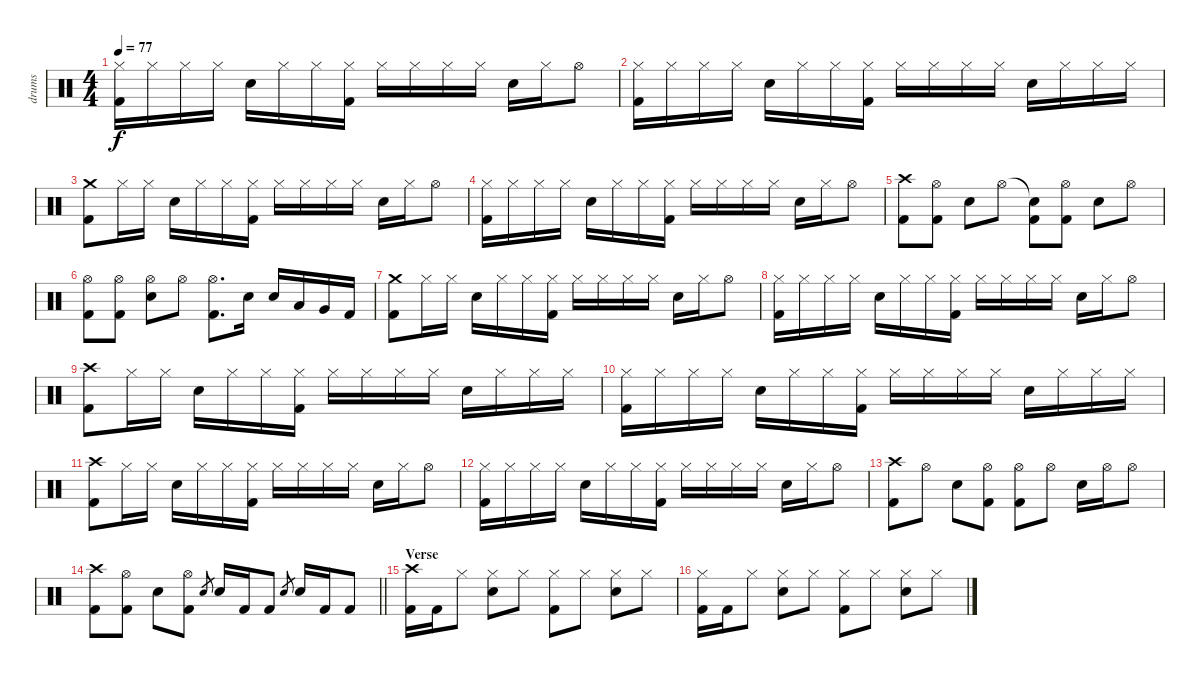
\track ("drums" "drums") {instrument percussion}
\staff {score}
\articulation defaults
\ts (4 4)
\tempo 77
\clef neutral
\ks c
("Hi-Hat (closed)" "Kick (hit) 2").16{dy f} "Hi-Hat (closed)".16 "Hi-Hat (closed)".16 "Hi-Hat (closed)".16 "Electric Snare (hit)".16 "Hi-Hat (closed)".16 "Hi-Hat (closed)".16 ("Hi-Hat (closed)" "Kick (hit) 2").16 "Hi-Hat (closed)".16 "Hi-Hat (closed)".16 "Hi-Hat (closed)".16 "Hi-Hat (closed)".16 "Electric Snare (hit)".16 "Hi-Hat (closed)".16 "Hi-Hat (open)".8 |
("Hi-Hat (closed)" "Kick (hit) 2").16 "Hi-Hat (closed)".16 "Hi-Hat (closed)".16 "Hi-Hat (closed)".16 "Electric Snare (hit)".16 "Hi-Hat (closed)".16 "Hi-Hat (closed)".16 ("Hi-Hat (closed)" "Kick (hit) 2").16 "Hi-Hat (closed)".16 "Hi-Hat (closed)".16 "Hi-Hat (closed)".16 "Hi-Hat (closed)".16 "Electric Snare (hit)".16 "Hi-Hat (closed)".16 "Hi-Hat (closed)".16 "Hi-Hat (closed)".16 |
("Crash medium (hit)" "Kick (hit) 2").8 "Hi-Hat (closed)".16 "Hi-Hat (closed)".16 "Electric Snare (hit)".16 "Hi-Hat (closed)".16 "Hi-Hat (closed)".16 ("Hi-Hat (closed)" "Kick (hit) 2").16 "Hi-Hat (closed)".16 "Hi-Hat (closed)".16 "Hi-Hat (closed)".16 "Hi-Hat (closed)".16 "Electric Snare (hit)".16 "Hi-Hat (closed)".16 "Hi-Hat (open)".8 |
("Hi-Hat (closed)" "Kick (hit) 2").16 "Hi-Hat (closed)".16 "Hi-Hat (closed)".16 "Hi-Hat (closed)".16 "Electric Snare (hit)".16 "Hi-Hat (closed)".16 "Hi-Hat (closed)".16 ("Hi-Hat (closed)" "Kick (hit) 2").16 "Hi-Hat (closed)".16 "Hi-Hat (closed)".16 "Hi-Hat (closed)".16 "Hi-Hat (closed)".16 "Electric Snare (hit)".16 "Hi-Hat (closed)".16 "Hi-Hat (open)".8 |
("Crash high (hit)" "Kick (hit) 2").8 ("Hi-Hat (open)" "Kick (hit) 2").8 "Electric Snare (hit)".8 "Hi-Hat (open)".8 ("Snare (hit)"{t} "Kick (hit) 2").8 ("Hi-Hat (open)" "Kick (hit) 2").8 "Electric Snare (hit)".8 "Hi-Hat (open)".8 |
("Hi-Hat (open)" "Kick (hit) 2").8 ("Hi-Hat (open)" "Kick (hit) 2").8 ("Hi-Hat (open)" "Electric Snare (hit)").8 "Hi-Hat (open)".8 ("Hi-Hat (open)" "Kick (hit) 2").8{d} "Electric Snare (hit)".16 "Electric Snare (hit)".16 "Low Tom (hit)".16 "Very Low Tom (hit)".16 "Kick (hit) 2".16 |
("Crash medium (hit)" "Kick (hit) 2").8 "Hi-Hat (closed)".16 "Hi-Hat (closed)".16 "Electric Snare (hit)".16 "Hi-Hat (closed)".16 "Hi-Hat (closed)".16 ("Hi-Hat (closed)" "Kick (hit) 2").16 "Hi-Hat (closed)".16 "Hi-Hat (closed)".16 "Hi-Hat (closed)".16 "Hi-Hat (closed)".16 "Electric Snare (hit)".16 "Hi-Hat (closed)".16 "Hi-Hat (open)".8 |
("Hi-Hat (closed)" "Kick (hit) 2").16 "Hi-Hat (closed)".16 "Hi-Hat (closed)".16 "Hi-Hat (closed)".16 "Electric Snare (hit)".16 "Hi-Hat (closed)".16 "Hi-Hat (closed)".16 ("Hi-Hat (closed)" "Kick (hit) 2").16 "Hi-Hat (closed)".16 "Hi-Hat (closed)".16 "Hi-Hat (closed)".16 "Hi-Hat (closed)".16 "Electric Snare (hit)".16 "Hi-Hat (closed)".16 "Hi-Hat (open)".8 |
("Crash high (hit)" "Kick (hit) 2").8 "Hi-Hat (closed)".16 "Hi-Hat (closed)".16 "Electric Snare (hit)".16 "Hi-Hat (closed)".16 "Hi-Hat (closed)".16 ("Hi-Hat (closed)" "Kick (hit) 2").16 "Hi-Hat (closed)".16 "Hi-Hat (closed)".16 "Hi-Hat (closed)".16 "Hi-Hat (closed)".16 "Electric Snare (hit)".16 "Hi-Hat (closed)".16 "Hi-Hat (closed)".16 "Hi-Hat (closed)".16 |
("Hi-Hat (closed)" "Kick (hit) 2").16 "Hi-Hat (closed)".16 "Hi-Hat (closed)".16 "Hi-Hat (closed)".16 "Electric Snare (hit)".16 "Hi-Hat (closed)".16 "Hi-Hat (closed)".16 ("Hi-Hat (closed)" "Kick (hit) 2").16 "Hi-Hat (closed)".16 "Hi-Hat (closed)".16 "Hi-Hat (closed)".16 "Hi-Hat (closed)".16 "Electric Snare (hit)".16 "Hi-Hat (closed)".16 "Hi-Hat (closed)".16 "Hi-Hat (closed)".16 |
("Crash high (hit)" "Kick (hit) 2").8 "Hi-Hat (closed)".16 "Hi-Hat (closed)".16 "Electric Snare (hit)".16 "Hi-Hat (closed)".16 "Hi-Hat (closed)".16 ("Hi-Hat (closed)" "Kick (hit) 2").16 "Hi-Hat (closed)".16 "Hi-Hat (closed)".16 "Hi-Hat (closed)".16 "Hi-Hat (closed)".16 "Electric Snare (hit)".16 "Hi-Hat (closed)".16 "Hi-Hat (open)".8 |
("Hi-Hat (closed)" "Kick (hit) 2").16 "Hi-Hat (closed)".16 "Hi-Hat (closed)".16 "Hi-Hat (closed)".16 "Electric Snare (hit)".16 "Hi-Hat (closed)".16 "Hi-Hat (closed)".16 ("Hi-Hat (closed)" "Kick (hit) 2").16 "Hi-Hat (closed)".16 "Hi-Hat (closed)".16 "Hi-Hat (closed)".16 "Hi-Hat (closed)".16 "Electric Snare (hit)".16 "Hi-Hat (closed)".16 "Hi-Hat (open)".8 |
("Crash high (hit)" "Kick (hit) 2").8 "Hi-Hat (open)".8 "Electric Snare (hit)".8 ("Hi-Hat (open)" "Kick (hit) 2").8 ("Hi-Hat (open)" "Kick (hit) 2").8 "Hi-Hat (open)".8 "Electric Snare (hit)".16 "Hi-Hat (open)".16 "Hi-Hat (open)".8 |
\barLineRight lightlight
("Crash high (hit)" "Kick (hit) 2").8 ("Hi-Hat (open)" "Kick (hit) 2").8 "Electric Snare (hit)".8 ("Hi-Hat (open)" "Kick (hit) 2").8 "Electric Snare (hit)".8{gr} "Electric Snare (hit)".16 "Kick (hit) 2".16 "Kick (hit) 2".8 "Electric Snare (hit)".8{gr} "Electric Snare (hit)".16 "Kick (hit) 2".16 "Kick (hit) 2".8 |
\section ("" "Verse")
("Crash high (hit)" "Kick (hit) 2").16 "Kick (hit) 2".16 "Hi-Hat (closed)".8 ("Hi-Hat (closed)" "Electric Snare (hit)").8 "Hi-Hat (closed)".8 ("Hi-Hat (closed)" "Kick (hit) 2").8 "Hi-Hat (closed)".8 ("Hi-Hat (closed)" "Electric Snare (hit)").8 "Hi-Hat (closed)".8 |
("Hi-Hat (closed)" "Kick (hit) 2").16 "Kick (hit) 2".16 "Hi-Hat (closed)".8 ("Hi-Hat (closed)" "Electric Snare (hit)").8 "Hi-Hat (closed)".8 ("Hi-Hat (closed)" "Kick (hit) 2").8 "Hi-Hat (closed)".8 ("Hi-Hat (closed)" "Electric Snare (hit)").8 "Hi-Hat (closed)".8
